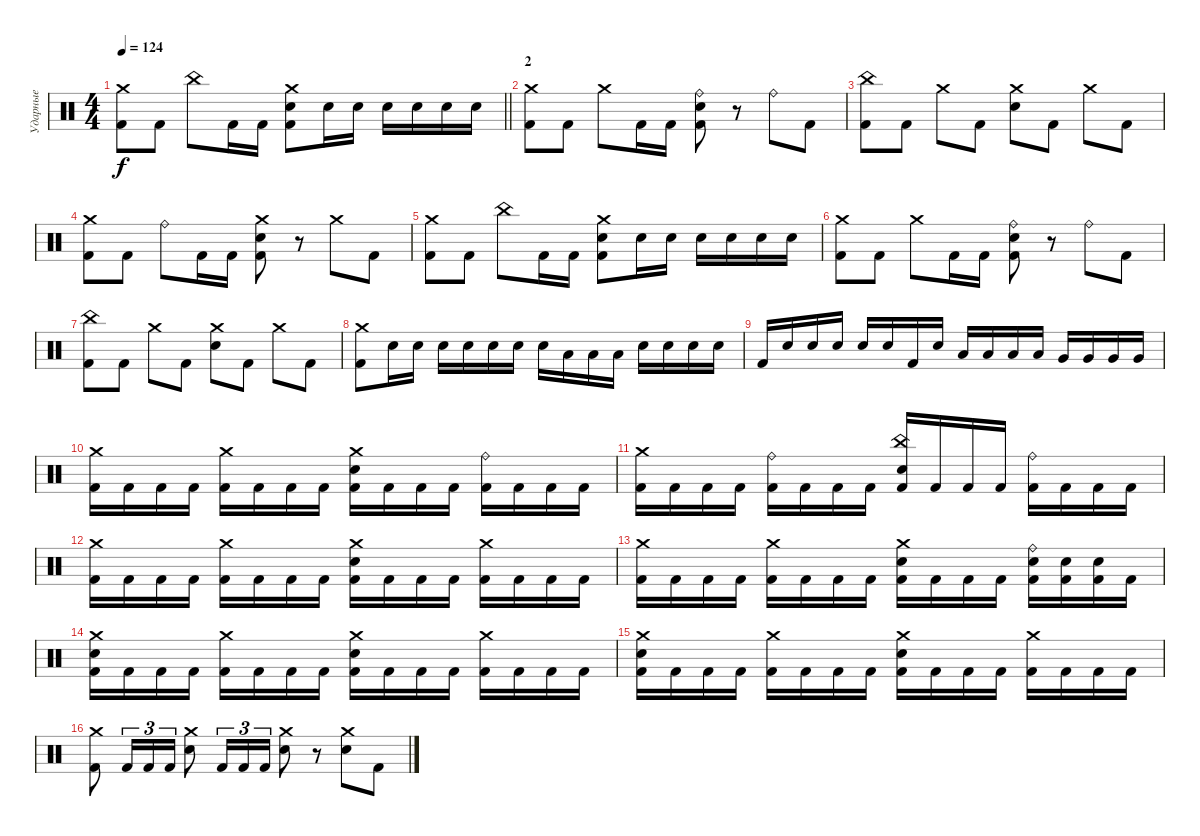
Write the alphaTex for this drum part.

\track ("Ударные" "Ударные") {instrument percussion}
\staff {score}
\articulation defaults
\ts (4 4)
\tempo 124
\clef neutral
\barLineRight lightlight
\ks c
("Crash medium (hit)" "Kick (hit) 2").8{dy f} "Kick (hit) 2".8 "China (hit)".8 "Kick (hit) 2".16 "Kick (hit) 2".16 ("Crash medium (hit)" "Snare (hit) 2" "Kick (hit) 2").8 "Snare (hit) 2".16 "Snare (hit) 2".16 "Snare (hit) 2".16 "Snare (hit) 2".16 "Snare (hit) 2".16 "Snare (hit) 2".16 |
\section ("" "2")
("Crash medium (hit)" "Kick (hit) 2").8 "Kick (hit) 2".8 "Crash medium (hit)".8 "Kick (hit) 2".16 "Kick (hit) 2".16 ("Ride (bell)" "Snare (hit) 2" "Kick (hit) 2").8 r.8 "Ride (bell)".8 "Kick (hit) 2".8 |
("China (hit)" "Kick (hit) 2").8 "Kick (hit) 2".8 "Crash medium (hit)".8 "Kick (hit) 2".8 ("Crash medium (hit)" "Snare (hit) 2").8 "Kick (hit) 2".8 "Crash medium (hit)".8 "Kick (hit) 2".8 |
("Crash medium (hit)" "Kick (hit) 2").8 "Kick (hit) 2".8 "Ride (bell)".8 "Kick (hit) 2".16 "Kick (hit) 2".16 ("Crash medium (hit)" "Snare (hit) 2" "Kick (hit) 2").8 r.8 "Crash medium (hit)".8 "Kick (hit) 2".8 |
("Crash medium (hit)" "Kick (hit) 2").8 "Kick (hit) 2".8 "China (hit)".8 "Kick (hit) 2".16 "Kick (hit) 2".16 ("Crash medium (hit)" "Snare (hit) 2" "Kick (hit) 2").8 "Snare (hit) 2".16 "Snare (hit) 2".16 "Snare (hit) 2".16 "Snare (hit) 2".16 "Snare (hit) 2".16 "Snare (hit) 2".16 |
("Crash medium (hit)" "Kick (hit) 2").8 "Kick (hit) 2".8 "Crash medium (hit)".8 "Kick (hit) 2".16 "Kick (hit) 2".16 ("Ride (bell)" "Snare (hit) 2" "Kick (hit) 2").8 r.8 "Ride (bell)".8 "Kick (hit) 2".8 |
("China (hit)" "Kick (hit) 2").8 "Kick (hit) 2".8 "Crash medium (hit)".8 "Kick (hit) 2".8 ("Crash medium (hit)" "Snare (hit) 2").8 "Kick (hit) 2".8 "Crash medium (hit)".8 "Kick (hit) 2".8 |
("Crash medium (hit)" "Kick (hit) 2").8 "Snare (hit) 2".16 "Snare (hit) 2".16 "Snare (hit) 2".16 "Snare (hit) 2".16 "Snare (hit) 2".16 "Snare (hit) 2".16 "Snare (hit) 2".16 "Low Tom (hit)".16 "Low Tom (hit)".16 "Low Tom (hit)".16 "Snare (hit) 2".16 "Snare (hit) 2".16 "Snare (hit) 2".16 "Snare (hit) 2".16 |
"Kick (hit) 2".16 "Snare (hit) 2".16 "Snare (hit) 2".16 "Snare (hit) 2".16 "Snare (hit) 2".16 "Snare (hit) 2".16 "Kick (hit) 2".16 "Snare (hit) 2".16 "Low Tom (hit)".16 "Low Tom (hit)".16 "Low Tom (hit)".16 "Low Tom (hit)".16 "Very Low Tom (hit)".16 "Very Low Tom (hit)".16 "Very Low Tom (hit)".16 "Very Low Tom (hit)".16 |
("Crash medium (hit)" "Kick (hit) 2").16 "Kick (hit) 2".16 "Kick (hit) 2".16 "Kick (hit) 2".16 ("Crash medium (hit)" "Kick (hit) 2").16 "Kick (hit) 2".16 "Kick (hit) 2".16 "Kick (hit) 2".16 ("Crash medium (hit)" "Snare (hit) 2" "Kick (hit) 2").16 "Kick (hit) 2".16 "Kick (hit) 2".16 "Kick (hit) 2".16 ("Ride (bell)" "Kick (hit) 2").16 "Kick (hit) 2".16 "Kick (hit) 2".16 "Kick (hit) 2".16 |
("Crash medium (hit)" "Kick (hit) 2").16 "Kick (hit) 2".16 "Kick (hit) 2".16 "Kick (hit) 2".16 ("Ride (bell)" "Kick (hit) 2").16 "Kick (hit) 2".16 "Kick (hit) 2".16 "Kick (hit) 2".16 ("China (hit)" "Snare (hit) 2" "Kick (hit) 2").16 "Kick (hit) 2".16 "Kick (hit) 2".16 "Kick (hit) 2".16 ("Ride (bell)" "Kick (hit) 2").16 "Kick (hit) 2".16 "Kick (hit) 2".16 "Kick (hit) 2".16 |
("Crash medium (hit)" "Kick (hit) 2").16 "Kick (hit) 2".16 "Kick (hit) 2".16 "Kick (hit) 2".16 ("Crash medium (hit)" "Kick (hit) 2").16 "Kick (hit) 2".16 "Kick (hit) 2".16 "Kick (hit) 2".16 ("Crash medium (hit)" "Snare (hit) 2" "Kick (hit) 2").16 "Kick (hit) 2".16 "Kick (hit) 2".16 "Kick (hit) 2".16 ("Crash medium (hit)" "Kick (hit) 2").16 "Kick (hit) 2".16 "Kick (hit) 2".16 "Kick (hit) 2".16 |
("Crash medium (hit)" "Kick (hit) 2").16 "Kick (hit) 2".16 "Kick (hit) 2".16 "Kick (hit) 2".16 ("Crash medium (hit)" "Kick (hit) 2").16 "Kick (hit) 2".16 "Kick (hit) 2".16 "Kick (hit) 2".16 ("Crash medium (hit)" "Snare (hit) 2" "Kick (hit) 2").16 "Kick (hit) 2".16 "Kick (hit) 2".16 "Kick (hit) 2".16 ("Ride (bell)" "Snare (hit) 2" "Kick (hit) 2").16 ("Snare (hit) 2" "Kick (hit) 2").16 ("Snare (hit) 2" "Kick (hit) 2").16 "Kick (hit) 2".16 |
("Crash medium (hit)" "Snare (hit) 2" "Kick (hit) 2").16 "Kick (hit) 2".16 "Kick (hit) 2".16 "Kick (hit) 2".16 ("Crash medium (hit)" "Kick (hit) 2").16 "Kick (hit) 2".16 "Kick (hit) 2".16 "Kick (hit) 2".16 ("Crash medium (hit)" "Snare (hit) 2" "Kick (hit) 2").16 "Kick (hit) 2".16 "Kick (hit) 2".16 "Kick (hit) 2".16 ("Crash medium (hit)" "Kick (hit) 2").16 "Kick (hit) 2".16 "Kick (hit) 2".16 "Kick (hit) 2".16 |
("Crash medium (hit)" "Snare (hit) 2" "Kick (hit) 2").16 "Kick (hit) 2".16 "Kick (hit) 2".16 "Kick (hit) 2".16 ("Crash medium (hit)" "Kick (hit) 2").16 "Kick (hit) 2".16 "Kick (hit) 2".16 "Kick (hit) 2".16 ("Crash medium (hit)" "Snare (hit) 2" "Kick (hit) 2").16 "Kick (hit) 2".16 "Kick (hit) 2".16 "Kick (hit) 2".16 ("Crash medium (hit)" "Kick (hit) 2").16 "Kick (hit) 2".16 "Kick (hit) 2".16 "Kick (hit) 2".16 |
("Crash medium (hit)" "Kick (hit) 2").8 "Kick (hit) 2".16{tu (3 2)} "Kick (hit) 2".16{tu (3 2)} "Kick (hit) 2".16{tu (3 2)} ("Crash medium (hit)" "Snare (hit) 2").8 "Kick (hit) 2".16{tu (3 2)} "Kick (hit) 2".16{tu (3 2)} "Kick (hit) 2".16{tu (3 2)} ("Crash medium (hit)" "Snare (hit) 2").8 r.8 ("Crash medium (hit)" "Snare (hit) 2").8 "Kick (hit) 2".8
